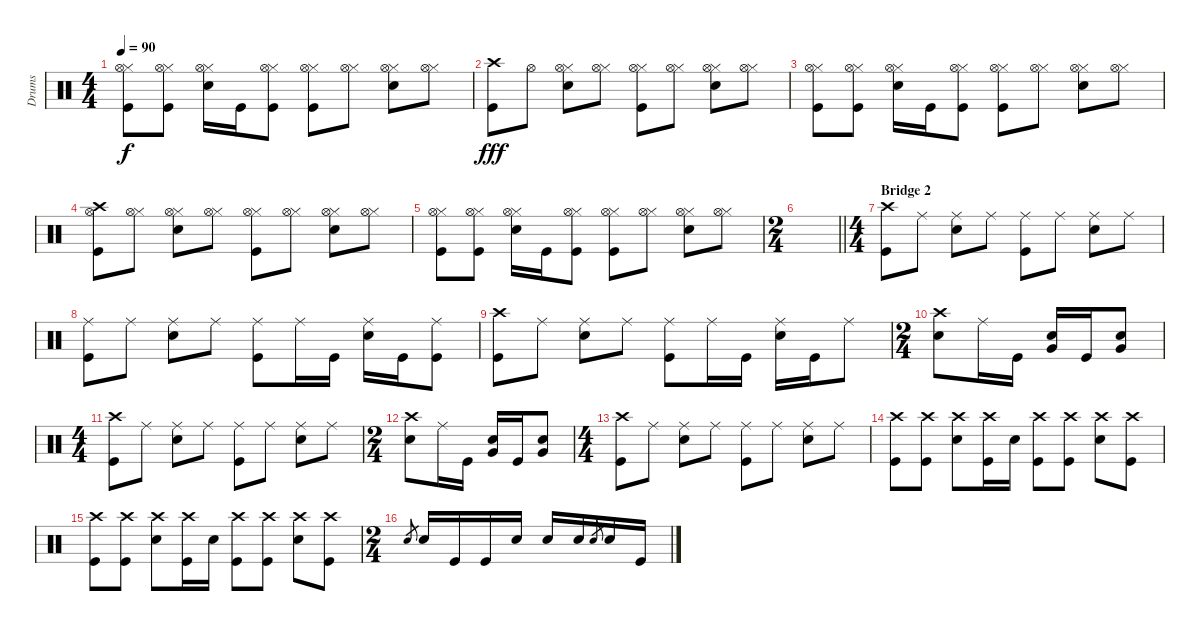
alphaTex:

\track ("Drums" "Drums") {instrument percussion}
\staff {score}
\articulation defaults
\ts (4 4)
\tempo 90
\clef neutral
\ks c
("Kick (hit)" "Hi-Hat (closed)" "Hi-Hat (open)").8{dy f} ("Kick (hit)" "Hi-Hat (closed)" "Hi-Hat (open)").8 ("Snare (hit) 2" "Hi-Hat (closed)" "Hi-Hat (open)").16 "Kick (hit)".16 ("Hi-Hat (closed)" "Kick (hit)" "Hi-Hat (open)").8 ("Kick (hit)" "Hi-Hat (closed)" "Hi-Hat (open)").8 ("Hi-Hat (closed)" "Hi-Hat (open)").8 ("Snare (hit) 2" "Hi-Hat (closed)" "Hi-Hat (open)").8 ("Hi-Hat (closed)" "Hi-Hat (open)").8 |
("Crash high (hit)" "Kick (hit)").8{dy fff} "Hi-Hat (open)".8 ("Snare (hit) 2" "Hi-Hat (closed)" "Hi-Hat (open)").8 ("Hi-Hat (closed)" "Hi-Hat (open)").8 ("Hi-Hat (closed)" "Kick (hit)" "Hi-Hat (open)").8 ("Hi-Hat (closed)" "Hi-Hat (open)").8 ("Hi-Hat (closed)" "Snare (hit) 2" "Hi-Hat (open)").8 ("Hi-Hat (closed)" "Hi-Hat (open)").8 |
("Kick (hit)" "Hi-Hat (closed)" "Hi-Hat (open)").8 ("Kick (hit)" "Hi-Hat (closed)" "Hi-Hat (open)").8 ("Snare (hit) 2" "Hi-Hat (closed)" "Hi-Hat (open)").16 "Kick (hit)".16 ("Hi-Hat (closed)" "Kick (hit)" "Hi-Hat (open)").8 ("Kick (hit)" "Hi-Hat (closed)" "Hi-Hat (open)").8 ("Hi-Hat (closed)" "Hi-Hat (open)").8 ("Snare (hit) 2" "Hi-Hat (closed)" "Hi-Hat (open)").8 ("Hi-Hat (closed)" "Hi-Hat (open)").8 |
("Crash high (hit)" "Kick (hit)" "Hi-Hat (open)").8 ("Hi-Hat (closed)" "Hi-Hat (open)").8 ("Snare (hit) 2" "Hi-Hat (closed)" "Hi-Hat (open)").8 ("Hi-Hat (closed)" "Hi-Hat (open)").8 ("Hi-Hat (closed)" "Kick (hit)" "Hi-Hat (open)").8 ("Hi-Hat (closed)" "Hi-Hat (open)").8 ("Hi-Hat (closed)" "Snare (hit) 2" "Hi-Hat (open)").8 ("Hi-Hat (closed)" "Hi-Hat (open)").8 |
("Kick (hit)" "Hi-Hat (closed)" "Hi-Hat (open)").8 ("Kick (hit)" "Hi-Hat (closed)" "Hi-Hat (open)").8 ("Snare (hit) 2" "Hi-Hat (closed)" "Hi-Hat (open)").16 "Kick (hit)".16 ("Hi-Hat (closed)" "Kick (hit)" "Hi-Hat (open)").8 ("Kick (hit)" "Hi-Hat (closed)" "Hi-Hat (open)").8 ("Hi-Hat (closed)" "Hi-Hat (open)").8 ("Snare (hit) 2" "Hi-Hat (closed)" "Hi-Hat (open)").8 ("Hi-Hat (closed)" "Hi-Hat (open)").8 |
\ts (2 4)
\barLineRight lightlight
|
\ts (4 4)
\section ("" "Bridge 2")
("Crash high (hit)" "Kick (hit)").8 "Ride (middle)".8 ("Snare (hit) 2" "Ride (middle)").8 "Ride (middle)".8 ("Kick (hit)" "Ride (middle)").8 "Ride (middle)".8 ("Snare (hit) 2" "Ride (middle)").8 "Ride (middle)".8 |
("Ride (middle)" "Kick (hit)").8 "Ride (middle)".8 ("Ride (middle)" "Snare (hit) 2").8 "Ride (middle)".8 ("Ride (middle)" "Kick (hit)").8 "Ride (middle)".16 "Kick (hit)".16 ("Ride (middle)" "Snare (hit) 2").16 "Kick (hit)".16 ("Kick (hit)" "Ride (middle)").8 |
("Crash high (hit)" "Kick (hit)").8 "Ride (middle)".8 ("Snare (hit) 2" "Ride (middle)").8 "Ride (middle)".8 ("Kick (hit)" "Ride (middle)").8 "Ride (middle)".16 "Kick (hit)".16 ("Snare (hit) 2" "Ride (middle)").16 "Kick (hit)".16 "Ride (middle)".8 |
\ts (2 4)
("Crash high (hit)" "Snare (hit) 2").8 "Ride (middle)".16 "Kick (hit)".16 ("Very Low Tom (hit)" "Snare (hit) 2").16 "Kick (hit)".16 ("Snare (hit) 2" "Very Low Tom (hit)").8 |
\ts (4 4)
("Crash high (hit)" "Kick (hit)").8 "Ride (middle)".8 ("Snare (hit) 2" "Ride (middle)").8 "Ride (middle)".8 ("Kick (hit)" "Ride (middle)").8 "Ride (middle)".8 ("Snare (hit) 2" "Ride (middle)").8 "Ride (middle)".8 |
\ts (2 4)
("Crash high (hit)" "Snare (hit) 2").8 "Ride (middle)".16 "Kick (hit)".16 ("Very Low Tom (hit)" "Snare (hit) 2").16 "Kick (hit)".16 ("Snare (hit) 2" "Very Low Tom (hit)").8 |
\ts (4 4)
("Crash high (hit)" "Kick (hit)").8 "Ride (middle)".8 ("Snare (hit) 2" "Ride (middle)").8 "Ride (middle)".8 ("Kick (hit)" "Ride (middle)").8 "Ride (middle)".8 ("Snare (hit) 2" "Ride (middle)").8 "Ride (middle)".8 |
("Crash high (hit)" "Kick (hit)").8 ("Crash high (hit)" "Kick (hit)").8 ("Crash high (hit)" "Snare (hit) 2").8 ("Crash high (hit)" "Kick (hit)").16 "Snare (hit) 2".16 ("Crash high (hit)" "Kick (hit)").8 ("Crash high (hit)" "Kick (hit)").8 ("Crash high (hit)" "Snare (hit) 2").8 ("Kick (hit)" "Crash high (hit)").8 |
("Crash high (hit)" "Kick (hit)").8 ("Crash high (hit)" "Kick (hit)").8 ("Crash high (hit)" "Snare (hit) 2").8 ("Crash high (hit)" "Kick (hit)").16 "Snare (hit) 2".16 ("Crash high (hit)" "Kick (hit)").8 ("Crash high (hit)" "Kick (hit)").8 ("Crash high (hit)" "Snare (hit) 2").8 ("Kick (hit)" "Crash high (hit)").8 |
\ts (2 4)
"Snare (hit) 2".8{gr} "Snare (hit) 2".16 "Kick (hit)".16 "Kick (hit)".16 "Snare (hit) 2".16 "Snare (hit) 2".16 "Snare (hit) 2".16 "Snare (hit) 2".8{gr} "Snare (hit) 2".16 "Kick (hit)".16
